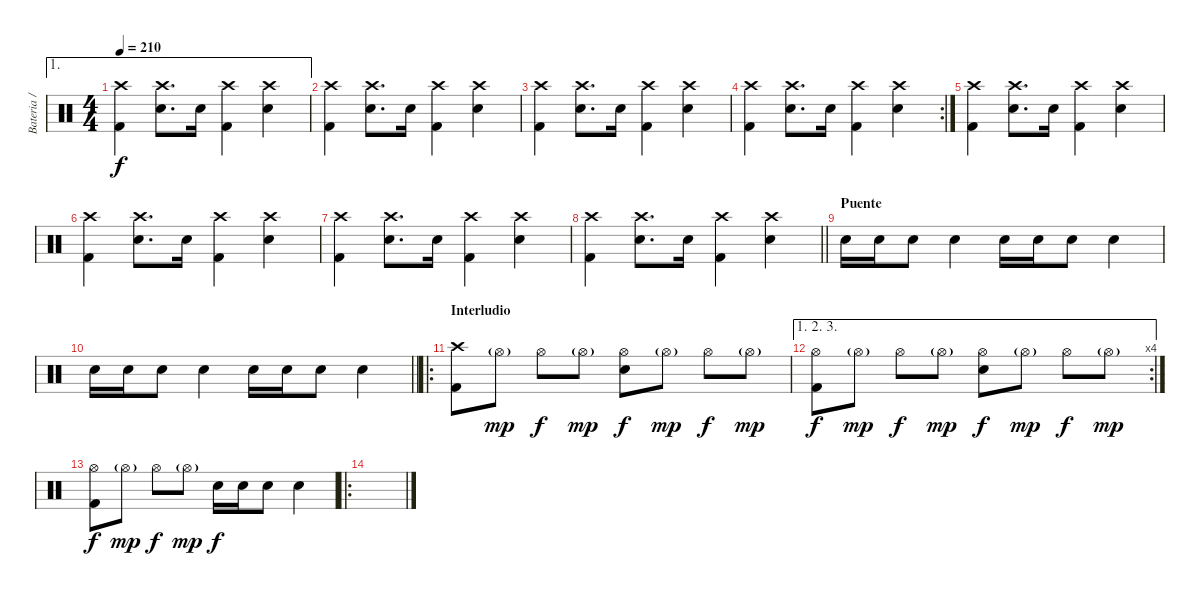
\track ("Bateria / Percusión" "Bateria / ") {instrument percussion}
\staff {score}
\articulation defaults
\ae 1
\ts (4 4)
\tempo 210
\clef neutral
\ks c
("Crash high (hit)" "Kick (hit) 2").4{dy f} ("Crash high (hit)" "Electric Snare (hit)").8{d} "Electric Snare (hit)".16 ("Crash high (hit)" "Kick (hit) 2").4 ("Crash high (hit)" "Electric Snare (hit)").4 |
("Crash high (hit)" "Kick (hit) 2").4 ("Crash high (hit)" "Electric Snare (hit)").8{d} "Electric Snare (hit)".16 ("Crash high (hit)" "Kick (hit) 2").4 ("Crash high (hit)" "Electric Snare (hit)").4 |
("Crash high (hit)" "Kick (hit) 2").4 ("Crash high (hit)" "Electric Snare (hit)").8{d} "Electric Snare (hit)".16 ("Crash high (hit)" "Kick (hit) 2").4 ("Crash high (hit)" "Electric Snare (hit)").4 |
\rc 2
("Crash high (hit)" "Kick (hit) 2").4 ("Crash high (hit)" "Electric Snare (hit)").8{d} "Electric Snare (hit)".16 ("Crash high (hit)" "Kick (hit) 2").4 ("Crash high (hit)" "Electric Snare (hit)").4 |
("Crash high (hit)" "Kick (hit) 2").4 ("Crash high (hit)" "Electric Snare (hit)").8{d} "Electric Snare (hit)".16 ("Crash high (hit)" "Kick (hit) 2").4 ("Crash high (hit)" "Electric Snare (hit)").4 |
("Crash high (hit)" "Kick (hit) 2").4 ("Crash high (hit)" "Electric Snare (hit)").8{d} "Electric Snare (hit)".16 ("Crash high (hit)" "Kick (hit) 2").4 ("Crash high (hit)" "Electric Snare (hit)").4 |
("Crash high (hit)" "Kick (hit) 2").4 ("Crash high (hit)" "Electric Snare (hit)").8{d} "Electric Snare (hit)".16 ("Crash high (hit)" "Kick (hit) 2").4 ("Crash high (hit)" "Electric Snare (hit)").4 |
\barLineRight lightlight
("Crash high (hit)" "Kick (hit) 2").4 ("Crash high (hit)" "Electric Snare (hit)").8{d} "Electric Snare (hit)".16 ("Crash high (hit)" "Kick (hit) 2").4 ("Crash high (hit)" "Electric Snare (hit)").4 |
\section ("" "Puente")
"Snare (hit) 2".16 "Electric Snare (hit)".16 "Snare (hit) 2".8 "Electric Snare (hit)".4 "Snare (hit) 2".16 "Electric Snare (hit)".16 "Snare (hit) 2".8 "Electric Snare (hit)".4 |
\barLineRight lightlight "Snare (hit) 2".16 "Electric Snare (hit)".16 "Snare (hit) 2".8 "Electric Snare (hit)".4 "Snare (hit) 2".16 "Electric Snare (hit)".16 "Snare (hit) 2".8 "Electric Snare (hit)".4
|
\ro
\section ("" "Interludio")
("Crash high (hit)" "Kick (hit) 2").8 "Hi-Hat (open)"{g}.8{dy mp} "Hi-Hat (open)".8{dy f} "Hi-Hat (open)"{g}.8{dy mp} ("Hi-Hat (open)" "Electric Snare (hit)").8{dy f} "Hi-Hat (open)"{g}.8{dy mp} "Hi-Hat (open)".8{dy f} "Hi-Hat (open)"{g}.8{dy mp} |
\ae (1 2 3)
\rc 4
("Hi-Hat (open)" "Kick (hit) 2").8{dy f} "Hi-Hat (open)"{g}.8{dy mp} "Hi-Hat (open)".8{dy f} "Hi-Hat (open)"{g}.8{dy mp} ("Hi-Hat (open)" "Electric Snare (hit)").8{dy f} "Hi-Hat (open)"{g}.8{dy mp} "Hi-Hat (open)".8{dy f} "Hi-Hat (open)"{g}.8{dy mp} |
("Hi-Hat (open)" "Kick (hit) 2").8{dy f} "Hi-Hat (open)"{g}.8{dy mp} "Hi-Hat (open)".8{dy f} "Hi-Hat (open)"{g}.8{dy mp} "Snare (hit) 2".16{dy f} "Electric Snare (hit)".16 "Snare (hit) 2".8 "Electric Snare (hit)".4 |
\ro
